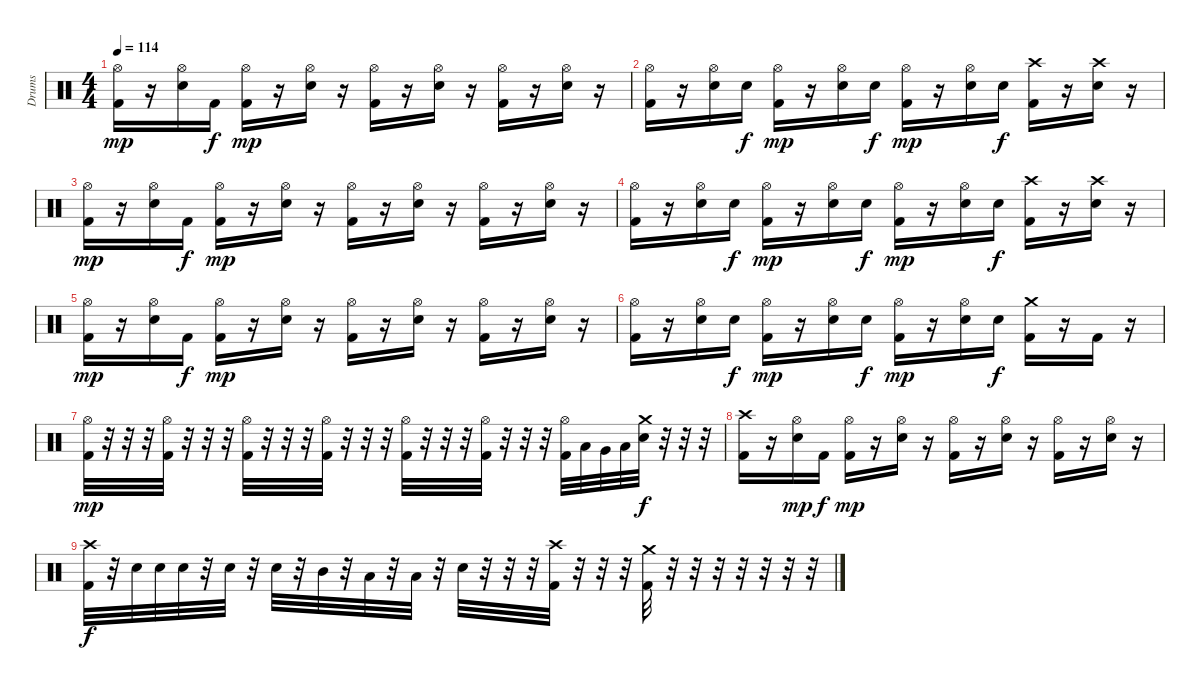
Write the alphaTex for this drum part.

\track ("Drums" "Drums") {instrument percussion}
\staff {score}
\articulation defaults
\ts (4 4)
\tempo 114
\clef neutral
\ks c
("Hi-Hat (open)" "Kick (hit) 2").16{dy mp} r.16 ("Hi-Hat (open)" "Electric Snare (hit)").16 "Kick (hit) 2".16{dy f} ("Hi-Hat (open)" "Kick (hit) 2").16{dy mp} r.16 ("Hi-Hat (open)" "Electric Snare (hit)").16 r.16 ("Hi-Hat (open)" "Kick (hit) 2").16 r.16 ("Hi-Hat (open)" "Electric Snare (hit)").16 r.16 ("Hi-Hat (open)" "Kick (hit) 2").16 r.16 ("Hi-Hat (open)" "Electric Snare (hit)").16 r.16 |
("Hi-Hat (open)" "Kick (hit) 2").16 r.16 ("Hi-Hat (open)" "Electric Snare (hit)").16 "Electric Snare (hit)".16{dy f} ("Hi-Hat (open)" "Kick (hit) 2").16{dy mp} r.16 ("Hi-Hat (open)" "Electric Snare (hit)").16 "Electric Snare (hit)".16{dy f} ("Hi-Hat (open)" "Kick (hit) 2").16{dy mp} r.16 ("Hi-Hat (open)" "Electric Snare (hit)").16 "Electric Snare (hit)".16{dy f} ("Crash high (hit)" "Kick (hit) 2").16 r.16 ("Crash high (hit)" "Electric Snare (hit)").16 r.16 |
("Hi-Hat (open)" "Kick (hit) 2").16{dy mp} r.16 ("Hi-Hat (open)" "Electric Snare (hit)").16 "Kick (hit) 2".16{dy f} ("Hi-Hat (open)" "Kick (hit) 2").16{dy mp} r.16 ("Hi-Hat (open)" "Electric Snare (hit)").16 r.16 ("Hi-Hat (open)" "Kick (hit) 2").16 r.16 ("Hi-Hat (open)" "Electric Snare (hit)").16 r.16 ("Hi-Hat (open)" "Kick (hit) 2").16 r.16 ("Hi-Hat (open)" "Electric Snare (hit)").16 r.16 |
("Hi-Hat (open)" "Kick (hit) 2").16 r.16 ("Hi-Hat (open)" "Electric Snare (hit)").16 "Electric Snare (hit)".16{dy f} ("Hi-Hat (open)" "Kick (hit) 2").16{dy mp} r.16 ("Hi-Hat (open)" "Electric Snare (hit)").16 "Electric Snare (hit)".16{dy f} ("Hi-Hat (open)" "Kick (hit) 2").16{dy mp} r.16 ("Hi-Hat (open)" "Electric Snare (hit)").16 "Electric Snare (hit)".16{dy f} ("Crash high (hit)" "Kick (hit) 2").16 r.16 ("Crash high (hit)" "Electric Snare (hit)").16 r.16 |
("Hi-Hat (open)" "Kick (hit) 2").16{dy mp} r.16 ("Hi-Hat (open)" "Electric Snare (hit)").16 "Kick (hit) 2".16{dy f} ("Hi-Hat (open)" "Kick (hit) 2").16{dy mp} r.16 ("Hi-Hat (open)" "Electric Snare (hit)").16 r.16 ("Hi-Hat (open)" "Kick (hit) 2").16 r.16 ("Hi-Hat (open)" "Electric Snare (hit)").16 r.16 ("Hi-Hat (open)" "Kick (hit) 2").16 r.16 ("Hi-Hat (open)" "Electric Snare (hit)").16 r.16 |
("Hi-Hat (open)" "Kick (hit) 2").16 r.16 ("Hi-Hat (open)" "Electric Snare (hit)").16 "Electric Snare (hit)".16{dy f} ("Hi-Hat (open)" "Kick (hit) 2").16{dy mp} r.16 ("Hi-Hat (open)" "Electric Snare (hit)").16 "Electric Snare (hit)".16{dy f} ("Hi-Hat (open)" "Kick (hit) 2").16{dy mp} r.16 ("Hi-Hat (open)" "Electric Snare (hit)").16 "Electric Snare (hit)".16{dy f} ("Crash medium (hit)" "Kick (hit) 2").16 r.16 "Kick (hit) 2".16 r.16 |
("Hi-Hat (open)" "Kick (hit) 2").32{dy mp} r.32 r.32 r.32 ("Hi-Hat (open)" "Kick (hit) 2").32 r.32 r.32 r.32 ("Hi-Hat (open)" "Kick (hit) 2").32 r.32 r.32 r.32 ("Hi-Hat (open)" "Kick (hit) 2").32 r.32 r.32 r.32 ("Hi-Hat (open)" "Kick (hit) 2").32 r.32 r.32 r.32 ("Hi-Hat (open)" "Kick (hit) 2").32 r.32 r.32 r.32 ("Hi-Hat (open)" "Kick (hit) 2").32 "Low Tom (hit)".32 "Very Low Tom (hit)".32 "Low Floor Tom (hit)".32 ("Crash medium (hit)" "Electric Snare (hit)").32{dy f} r.32 r.32 r.32 |
("Crash high (hit)" "Kick (hit) 2").16 r.16 ("Hi-Hat (open)" "Electric Snare (hit)").16{dy mp} "Kick (hit) 2".16{dy f} ("Hi-Hat (open)" "Kick (hit) 2").16{dy mp} r.16 ("Hi-Hat (open)" "Electric Snare (hit)").16 r.16 ("Hi-Hat (open)" "Kick (hit) 2").16 r.16 ("Hi-Hat (open)" "Electric Snare (hit)").16 r.16 ("Hi-Hat (open)" "Kick (hit) 2").16 r.16 ("Hi-Hat (open)" "Electric Snare (hit)").16 r.16 |
("Crash high (hit)" "Kick (hit) 2").32{dy f} r.32 "Electric Snare (hit)".32 "Electric Snare (hit)".32 "Electric Snare (hit)".32 r.32 "Electric Snare (hit)".32 r.32 "Electric Snare (hit)".32 r.32 "Mid Tom (hit)".32 r.32 "Low Tom (hit)".32 r.32 "Low Floor Tom (hit)".32 r.32 "Electric Snare (hit)".32 r.32 r.32 r.32 ("Crash high (hit)" "Kick (hit) 2").32 r.32 r.32 r.32 ("Crash medium (hit)" "Kick (hit) 2").32 r.32 r.32 r.32 r.32 r.32 r.32 r.32
